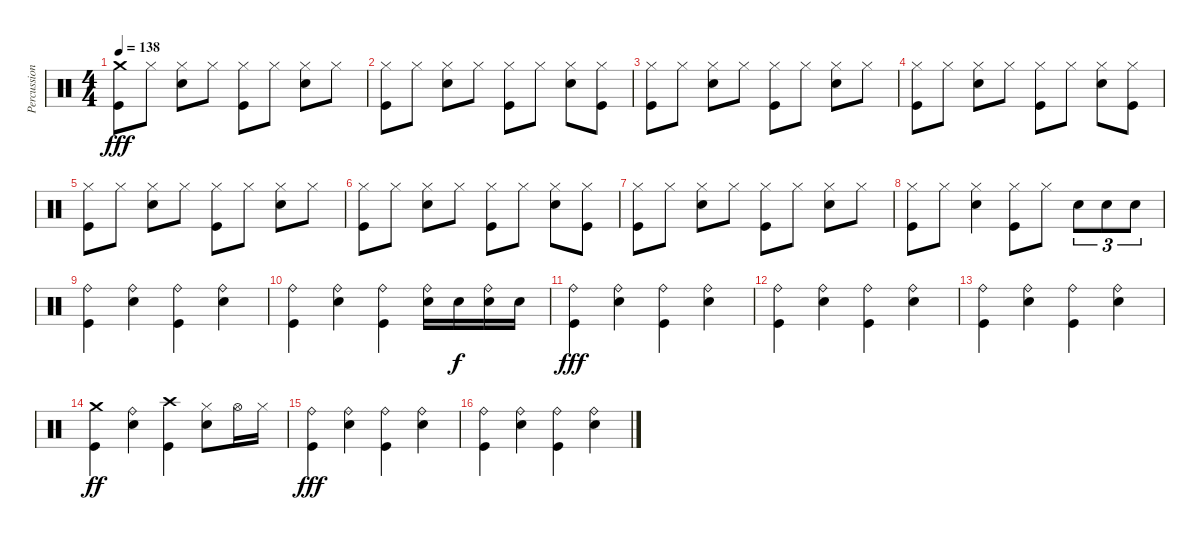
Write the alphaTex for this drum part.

\track ("Percussions" "Percussion") {instrument percussion}
\staff {score}
\articulation defaults
\ts (4 4)
\tempo 138
\clef neutral
\ks c
("Crash medium (hit)" "Kick (hit)").8{dy fff} "Hi-Hat (closed)".8 ("Hi-Hat (closed)" "Snare (hit) 2").8 "Hi-Hat (closed)".8 ("Hi-Hat (closed)" "Kick (hit)").8 "Hi-Hat (closed)".8 ("Hi-Hat (closed)" "Snare (hit) 2").8 "Hi-Hat (closed)".8 |
("Hi-Hat (closed)" "Kick (hit)").8 "Hi-Hat (closed)".8 ("Hi-Hat (closed)" "Snare (hit) 2").8 "Hi-Hat (closed)".8 ("Hi-Hat (closed)" "Kick (hit)").8 "Hi-Hat (closed)".8 ("Hi-Hat (closed)" "Snare (hit) 2").8 ("Hi-Hat (closed)" "Kick (hit)").8 |
("Hi-Hat (closed)" "Kick (hit)").8 "Hi-Hat (closed)".8 ("Hi-Hat (closed)" "Snare (hit) 2").8 "Hi-Hat (closed)".8 ("Hi-Hat (closed)" "Kick (hit)").8 "Hi-Hat (closed)".8 ("Hi-Hat (closed)" "Snare (hit) 2").8 "Hi-Hat (closed)".8 |
("Hi-Hat (closed)" "Kick (hit)").8 "Hi-Hat (closed)".8 ("Hi-Hat (closed)" "Snare (hit) 2").8 "Hi-Hat (closed)".8 ("Hi-Hat (closed)" "Kick (hit)").8 "Hi-Hat (closed)".8 ("Hi-Hat (closed)" "Snare (hit) 2").8 ("Hi-Hat (closed)" "Kick (hit)").8 |
("Hi-Hat (closed)" "Kick (hit)").8 "Hi-Hat (closed)".8 ("Hi-Hat (closed)" "Snare (hit) 2").8 "Hi-Hat (closed)".8 ("Hi-Hat (closed)" "Kick (hit)").8 "Hi-Hat (closed)".8 ("Hi-Hat (closed)" "Snare (hit) 2").8 "Hi-Hat (closed)".8 |
("Hi-Hat (closed)" "Kick (hit)").8 "Hi-Hat (closed)".8 ("Hi-Hat (closed)" "Snare (hit) 2").8 "Hi-Hat (closed)".8 ("Hi-Hat (closed)" "Kick (hit)").8 "Hi-Hat (closed)".8 ("Hi-Hat (closed)" "Snare (hit) 2").8 ("Hi-Hat (closed)" "Kick (hit)").8 |
("Hi-Hat (closed)" "Kick (hit)").8 "Hi-Hat (closed)".8 ("Hi-Hat (closed)" "Snare (hit) 2").8 "Hi-Hat (closed)".8 ("Hi-Hat (closed)" "Kick (hit)").8 "Hi-Hat (closed)".8 ("Hi-Hat (closed)" "Snare (hit) 2").8 "Hi-Hat (closed)".8 |
("Hi-Hat (closed)" "Kick (hit)").8 "Hi-Hat (closed)".8 ("Hi-Hat (closed)" "Snare (hit) 2").4 ("Hi-Hat (closed)" "Kick (hit)").8 "Hi-Hat (closed)".8 "Snare (hit) 2".8{tu (3 2)} "Snare (hit) 2".8{tu (3 2)} "Snare (hit) 2".8{tu (3 2)} |
("Ride (bell)" "Kick (hit)").4 ("Ride (bell)" "Snare (hit) 2").4 ("Ride (bell)" "Kick (hit)").4 ("Ride (bell)" "Snare (hit) 2").4 |
("Ride (bell)" "Kick (hit)").4 ("Ride (bell)" "Snare (hit) 2").4 ("Ride (bell)" "Kick (hit)").4 ("Ride (bell)" "Snare (hit) 2").16 "Snare (hit) 2".16{dy f} ("Ride (bell)" "Snare (hit) 2").16 "Snare (hit) 2".16 |
("Ride (bell)" "Kick (hit)").4{dy fff} ("Ride (bell)" "Snare (hit) 2").4 ("Ride (bell)" "Kick (hit)").4 ("Ride (bell)" "Snare (hit) 2").4 |
("Ride (bell)" "Kick (hit)").4 ("Ride (bell)" "Snare (hit) 2").4 ("Ride (bell)" "Kick (hit)").4 ("Ride (bell)" "Snare (hit) 2").4 |
("Ride (bell)" "Kick (hit)").4 ("Ride (bell)" "Snare (hit) 2").4 ("Ride (bell)" "Kick (hit)").4 ("Ride (bell)" "Snare (hit) 2").4 |
("Crash medium (hit)" "Kick (hit)").4{dy ff} ("Ride (bell)" "Snare (hit) 2").4 ("Crash high (hit)" "Kick (hit)").4 ("Hi-Hat (closed)" "Snare (hit) 2").8 "Hi-Hat (open)".16 "Hi-Hat (closed)".16 |
("Ride (bell)" "Kick (hit)").4{dy fff} ("Ride (bell)" "Snare (hit) 2").4 ("Ride (bell)" "Kick (hit)").4 ("Ride (bell)" "Snare (hit) 2").4 |
("Ride (bell)" "Kick (hit)").4 ("Ride (bell)" "Snare (hit) 2").4 ("Ride (bell)" "Kick (hit)").4 ("Ride (bell)" "Snare (hit) 2").4
